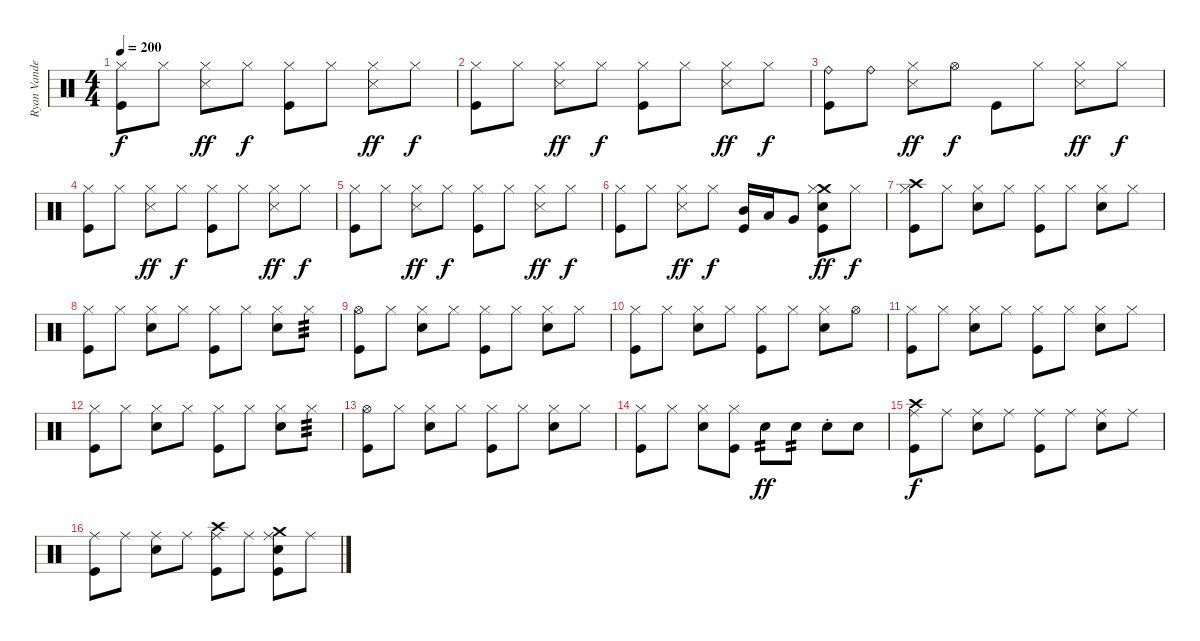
\track ("Ryan Vandebergh" "Ryan Vande") {instrument percussion}
\staff {score}
\articulation defaults
\ts (4 4)
\tempo 200
\clef neutral
\ks c
("Hi-Hat (closed)" "Kick (hit)").8{dy f} "Hi-Hat (closed)".8 ("Hi-Hat (closed)" "Snare (side stick) 3").8{dy ff} "Hi-Hat (closed)".8{dy f} ("Hi-Hat (closed)" "Kick (hit)").8 "Hi-Hat (closed)".8 ("Hi-Hat (closed)" "Snare (side stick) 3").8{dy ff} "Hi-Hat (closed)".8{dy f} |
("Hi-Hat (closed)" "Kick (hit)").8 "Hi-Hat (closed)".8 ("Hi-Hat (closed)" "Snare (side stick) 3").8{dy ff} "Hi-Hat (closed)".8{dy f} ("Hi-Hat (closed)" "Kick (hit)").8 "Hi-Hat (closed)".8 ("Hi-Hat (closed)" "Snare (side stick) 3").8{dy ff} "Hi-Hat (closed)".8{dy f} |
("Ride (bell)" "Kick (hit)").8 "Ride (bell)".8 ("Hi-Hat (closed)" "Snare (side stick) 3").8{dy ff} "Hi-Hat (open)".8{dy f} "Kick (hit)".8 "Hi-Hat (closed)".8 ("Hi-Hat (closed)" "Snare (side stick) 3").8{dy ff} "Hi-Hat (closed)".8{dy f} |
("Hi-Hat (closed)" "Kick (hit)").8 "Hi-Hat (closed)".8 ("Hi-Hat (closed)" "Snare (side stick) 3").8{dy ff} "Hi-Hat (closed)".8{dy f} ("Hi-Hat (closed)" "Kick (hit)").8 "Hi-Hat (closed)".8 ("Hi-Hat (closed)" "Snare (side stick) 3").8{dy ff} "Hi-Hat (closed)".8{dy f} |
("Hi-Hat (closed)" "Kick (hit)").8 "Hi-Hat (closed)".8 ("Hi-Hat (closed)" "Snare (side stick) 3").8{dy ff} "Hi-Hat (closed)".8{dy f} ("Hi-Hat (closed)" "Kick (hit)").8 "Hi-Hat (closed)".8 ("Hi-Hat (closed)" "Snare (side stick) 3").8{dy ff} "Hi-Hat (closed)".8{dy f} |
("Hi-Hat (closed)" "Kick (hit)").8 "Hi-Hat (closed)".8 ("Hi-Hat (closed)" "Snare (side stick) 3").8{dy ff} "Hi-Hat (closed)".8{dy f} ("Mid Tom (hit)" "Kick (hit)").16 "Low Tom (hit)".16 "Very Low Tom (hit)".8 ("Crash medium (hit)" "Hi-Hat (closed)" "Electric Snare (hit)" "Kick (hit)").8{dy ff} "Hi-Hat (closed)".8{dy f} |
("Crash high (hit)" "Hi-Hat (closed)" "Kick (hit)").8 "Hi-Hat (closed)".8 ("Hi-Hat (closed)" "Electric Snare (hit)").8 "Hi-Hat (closed)".8 ("Hi-Hat (closed)" "Kick (hit)").8 "Hi-Hat (closed)".8 ("Hi-Hat (closed)" "Electric Snare (hit)").8 "Hi-Hat (closed)".8 |
("Hi-Hat (closed)" "Kick (hit)").8 "Hi-Hat (closed)".8 ("Hi-Hat (closed)" "Electric Snare (hit)").8 "Hi-Hat (closed)".8 ("Hi-Hat (closed)" "Kick (hit)").8 "Hi-Hat (closed)".8 ("Hi-Hat (closed)" "Electric Snare (hit)").8 "Hi-Hat (closed)".8{tp 3} |
("Hi-Hat (open)" "Kick (hit)").8 "Hi-Hat (closed)".8 ("Hi-Hat (closed)" "Electric Snare (hit)").8 "Hi-Hat (closed)".8 ("Hi-Hat (closed)" "Kick (hit)").8 "Hi-Hat (closed)".8 ("Hi-Hat (closed)" "Electric Snare (hit)").8 "Hi-Hat (closed)".8 |
("Hi-Hat (closed)" "Kick (hit)").8 "Hi-Hat (closed)".8 ("Hi-Hat (closed)" "Electric Snare (hit)").8 "Hi-Hat (closed)".8 ("Hi-Hat (closed)" "Kick (hit)").8 "Hi-Hat (closed)".8 ("Hi-Hat (closed)" "Electric Snare (hit)").8 "Hi-Hat (open)".8 |
("Hi-Hat (closed)" "Kick (hit)").8 "Hi-Hat (closed)".8 ("Hi-Hat (closed)" "Electric Snare (hit)").8 "Hi-Hat (closed)".8 ("Hi-Hat (closed)" "Kick (hit)").8 "Hi-Hat (closed)".8 ("Hi-Hat (closed)" "Electric Snare (hit)").8 "Hi-Hat (closed)".8 |
("Hi-Hat (closed)" "Kick (hit)").8 "Hi-Hat (closed)".8 ("Hi-Hat (closed)" "Electric Snare (hit)").8 "Hi-Hat (closed)".8 ("Hi-Hat (closed)" "Kick (hit)").8 "Hi-Hat (closed)".8 ("Hi-Hat (closed)" "Electric Snare (hit)").8 "Hi-Hat (closed)".8{tp 3} |
("Hi-Hat (open)" "Kick (hit)").8 "Hi-Hat (closed)".8 ("Hi-Hat (closed)" "Electric Snare (hit)").8 "Hi-Hat (closed)".8 ("Hi-Hat (closed)" "Kick (hit)").8 "Hi-Hat (closed)".8 ("Hi-Hat (closed)" "Electric Snare (hit)").8 "Hi-Hat (closed)".8 |
("Hi-Hat (closed)" "Kick (hit)").8 "Hi-Hat (closed)".8 ("Hi-Hat (closed)" "Electric Snare (hit)").8 ("Hi-Hat (closed)" "Kick (hit)").8 "Electric Snare (hit)".8{tp 2 dy ff} "Electric Snare (hit)".8{tp 2} "Electric Snare (hit)"{st}.8 "Electric Snare (hit)".8 |
("Crash high (hit)" "Ride (middle)" "Kick (hit)").8{dy f} "Ride (middle)".8 ("Ride (middle)" "Electric Snare (hit)").8 "Ride (middle)".8 ("Ride (middle)" "Kick (hit)").8 "Ride (middle)".8 ("Ride (middle)" "Electric Snare (hit)").8 "Ride (middle)".8 |
("Ride (middle)" "Kick (hit)").8 "Ride (middle)".8 ("Ride (middle)" "Electric Snare (hit)").8 "Ride (middle)".8 ("Crash high (hit)" "Ride (middle)" "Kick (hit)").8 "Ride (middle)".8 ("Crash medium (hit)" "Ride (middle)" "Electric Snare (hit)" "Kick (hit)").8 "Ride (middle)".8
